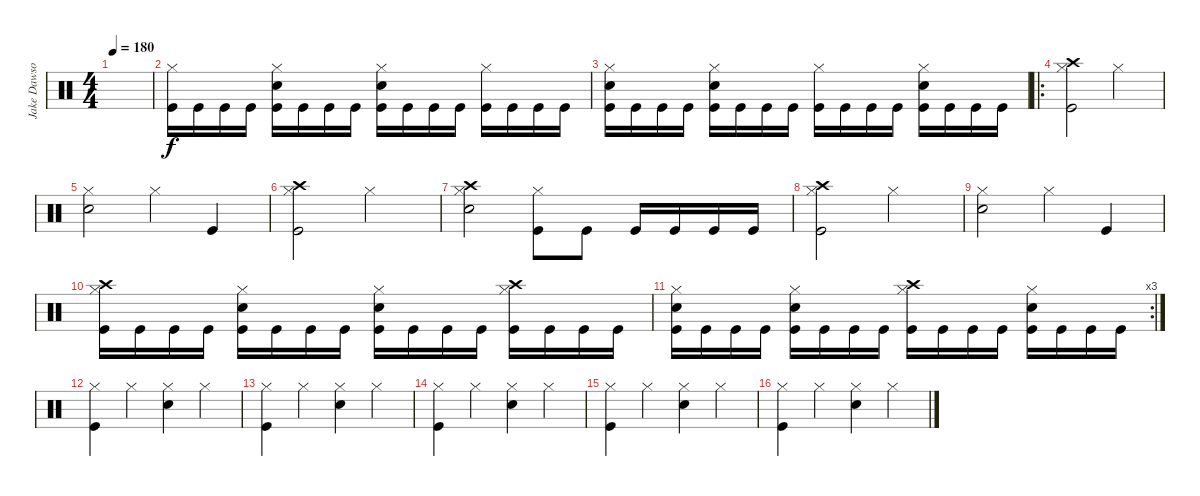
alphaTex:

\track ("Jake Dawson" "Jake Dawso") {instrument percussion}
\staff {score}
\articulation defaults
\ts (4 4)
\tempo 180
\clef neutral
\ks c
|
("Hi-Hat (closed)" "Kick (hit)").16 "Kick (hit)".16 "Kick (hit)".16 "Kick (hit)".16 ("Hi-Hat (closed)" "Snare (hit) 2" "Kick (hit)").16 "Kick (hit)".16 "Kick (hit)".16 "Kick (hit)".16 ("Hi-Hat (closed)" "Snare (hit) 2" "Kick (hit)").16 "Kick (hit)".16 "Kick (hit)".16 "Kick (hit)".16 ("Hi-Hat (closed)" "Kick (hit)").16 "Kick (hit)".16 "Kick (hit)".16 "Kick (hit)".16 |
("Hi-Hat (closed)" "Snare (hit) 2" "Kick (hit)").16 "Kick (hit)".16 "Kick (hit)".16 "Kick (hit)".16 ("Hi-Hat (closed)" "Snare (hit) 2" "Kick (hit)").16 "Kick (hit)".16 "Kick (hit)".16 "Kick (hit)".16 ("Hi-Hat (closed)" "Kick (hit)").16 "Kick (hit)".16 "Kick (hit)".16 "Kick (hit)".16 ("Hi-Hat (closed)" "Snare (hit) 2" "Kick (hit)").16 "Kick (hit)".16 "Kick (hit)".16 "Kick (hit)".16 |
\ro
("Crash high (hit)" "Hi-Hat (closed)" "Kick (hit)").2 "Hi-Hat (closed)".2 |
("Hi-Hat (closed)" "Snare (hit) 2").2 "Hi-Hat (closed)".4 "Kick (hit)".4 |
("Crash high (hit)" "Hi-Hat (closed)" "Kick (hit)").2 "Hi-Hat (closed)".2 |
("Crash high (hit)" "Hi-Hat (closed)" "Snare (hit) 2").2 ("Hi-Hat (closed)" "Kick (hit)").8 "Kick (hit)".8 "Kick (hit)".16 "Kick (hit)".16 "Kick (hit)".16 "Kick (hit)".16 |
("Crash high (hit)" "Hi-Hat (closed)" "Kick (hit)").2 "Hi-Hat (closed)".2 |
("Hi-Hat (closed)" "Snare (hit) 2").2 "Hi-Hat (closed)".4 "Kick (hit)".4 |
("Crash high (hit)" "Hi-Hat (closed)" "Kick (hit)").16 "Kick (hit)".16 "Kick (hit)".16 "Kick (hit)".16 ("Hi-Hat (closed)" "Snare (hit) 2" "Kick (hit)").16 "Kick (hit)".16 "Kick (hit)".16 "Kick (hit)".16 ("Hi-Hat (closed)" "Snare (hit) 2" "Kick (hit)").16 "Kick (hit)".16 "Kick (hit)".16 "Kick (hit)".16 ("Crash high (hit)" "Hi-Hat (closed)" "Kick (hit)").16 "Kick (hit)".16 "Kick (hit)".16 "Kick (hit)".16 |
\rc 3
("Hi-Hat (closed)" "Snare (hit) 2" "Kick (hit)").16 "Kick (hit)".16 "Kick (hit)".16 "Kick (hit)".16 ("Hi-Hat (closed)" "Snare (hit) 2" "Kick (hit)").16 "Kick (hit)".16 "Kick (hit)".16 "Kick (hit)".16 ("Crash high (hit)" "Hi-Hat (closed)" "Kick (hit)").16 "Kick (hit)".16 "Kick (hit)".16 "Kick (hit)".16 ("Hi-Hat (closed)" "Snare (hit) 2" "Kick (hit)").16 "Kick (hit)".16 "Kick (hit)".16 "Kick (hit)".16 |
("Hi-Hat (closed)" "Kick (hit)").4 "Hi-Hat (closed)".4 ("Hi-Hat (closed)" "Snare (hit) 2").4 "Hi-Hat (closed)".4 |
("Hi-Hat (closed)" "Kick (hit)").4 "Hi-Hat (closed)".4 ("Hi-Hat (closed)" "Snare (hit) 2").4 "Hi-Hat (closed)".4 |
("Hi-Hat (closed)" "Kick (hit)").4 "Hi-Hat (closed)".4 ("Hi-Hat (closed)" "Snare (hit) 2").4 "Hi-Hat (closed)".4 |
("Hi-Hat (closed)" "Kick (hit)").4 "Hi-Hat (closed)".4 ("Hi-Hat (closed)" "Snare (hit) 2").4 "Hi-Hat (closed)".4 |
("Hi-Hat (closed)" "Kick (hit)").4 "Hi-Hat (closed)".4 ("Hi-Hat (closed)" "Snare (hit) 2").4 "Hi-Hat (closed)".4
